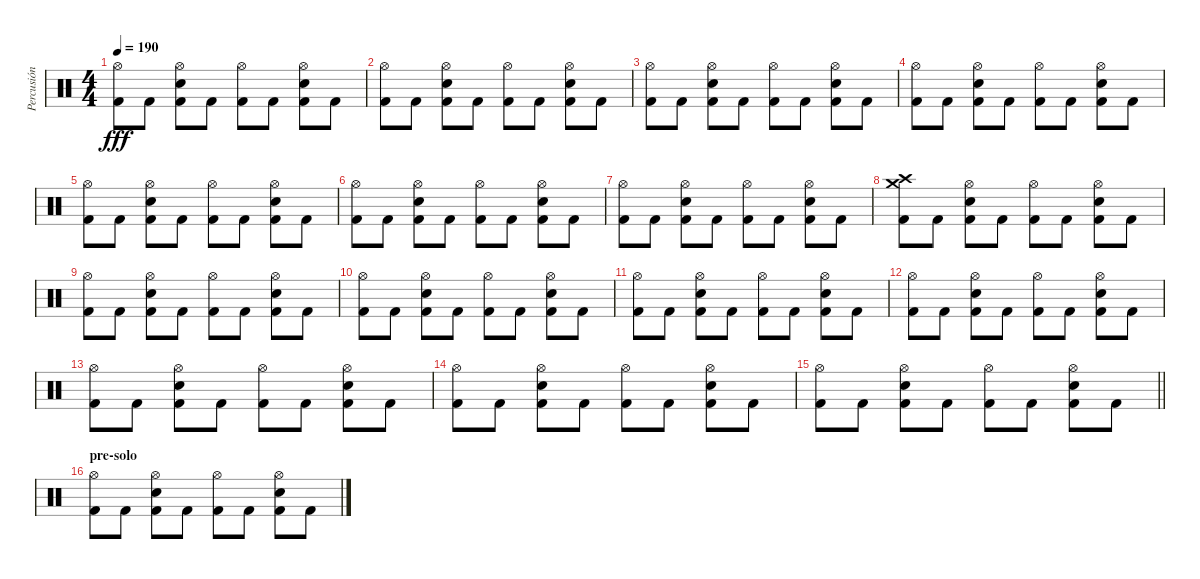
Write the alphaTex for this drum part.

\track ("Percusión" "Percusión") {instrument percussion}
\staff {score}
\articulation defaults
\ts (4 4)
\tempo 190
\clef neutral
\ks c
("Hi-Hat (open)" "Kick (hit) 2").8{dy fff} "Kick (hit) 2".8 ("Hi-Hat (open)" "Electric Snare (hit)" "Kick (hit) 2").8 "Kick (hit) 2".8 ("Hi-Hat (open)" "Kick (hit) 2").8 "Kick (hit) 2".8 ("Hi-Hat (open)" "Electric Snare (hit)" "Kick (hit) 2").8 "Kick (hit) 2".8 |
("Hi-Hat (open)" "Kick (hit) 2").8 "Kick (hit) 2".8 ("Hi-Hat (open)" "Electric Snare (hit)" "Kick (hit) 2").8 "Kick (hit) 2".8 ("Hi-Hat (open)" "Kick (hit) 2").8 "Kick (hit) 2".8 ("Hi-Hat (open)" "Electric Snare (hit)" "Kick (hit) 2").8 "Kick (hit) 2".8 |
("Hi-Hat (open)" "Kick (hit) 2").8 "Kick (hit) 2".8 ("Hi-Hat (open)" "Electric Snare (hit)" "Kick (hit) 2").8 "Kick (hit) 2".8 ("Hi-Hat (open)" "Kick (hit) 2").8 "Kick (hit) 2".8 ("Hi-Hat (open)" "Electric Snare (hit)" "Kick (hit) 2").8 "Kick (hit) 2".8 |
("Hi-Hat (open)" "Kick (hit) 2").8 "Kick (hit) 2".8 ("Hi-Hat (open)" "Electric Snare (hit)" "Kick (hit) 2").8 "Kick (hit) 2".8 ("Hi-Hat (open)" "Kick (hit) 2").8 "Kick (hit) 2".8 ("Hi-Hat (open)" "Electric Snare (hit)" "Kick (hit) 2").8 "Kick (hit) 2".8 |
("Hi-Hat (open)" "Kick (hit) 2").8 "Kick (hit) 2".8 ("Hi-Hat (open)" "Electric Snare (hit)" "Kick (hit) 2").8 "Kick (hit) 2".8 ("Hi-Hat (open)" "Kick (hit) 2").8 "Kick (hit) 2".8 ("Hi-Hat (open)" "Electric Snare (hit)" "Kick (hit) 2").8 "Kick (hit) 2".8 |
("Hi-Hat (open)" "Kick (hit) 2").8 "Kick (hit) 2".8 ("Hi-Hat (open)" "Electric Snare (hit)" "Kick (hit) 2").8 "Kick (hit) 2".8 ("Hi-Hat (open)" "Kick (hit) 2").8 "Kick (hit) 2".8 ("Hi-Hat (open)" "Electric Snare (hit)" "Kick (hit) 2").8 "Kick (hit) 2".8 |
("Hi-Hat (open)" "Kick (hit) 2").8 "Kick (hit) 2".8 ("Hi-Hat (open)" "Electric Snare (hit)" "Kick (hit) 2").8 "Kick (hit) 2".8 ("Hi-Hat (open)" "Kick (hit) 2").8 "Kick (hit) 2".8 ("Hi-Hat (open)" "Electric Snare (hit)" "Kick (hit) 2").8 "Kick (hit) 2".8 |
("Crash high (hit)" "Crash medium (hit)" "Kick (hit) 2").8 "Kick (hit) 2".8 ("Hi-Hat (open)" "Electric Snare (hit)" "Kick (hit) 2").8 "Kick (hit) 2".8 ("Hi-Hat (open)" "Kick (hit) 2").8 "Kick (hit) 2".8 ("Hi-Hat (open)" "Electric Snare (hit)" "Kick (hit) 2").8 "Kick (hit) 2".8 |
("Hi-Hat (open)" "Kick (hit) 2").8 "Kick (hit) 2".8 ("Hi-Hat (open)" "Electric Snare (hit)" "Kick (hit) 2").8 "Kick (hit) 2".8 ("Hi-Hat (open)" "Kick (hit) 2").8 "Kick (hit) 2".8 ("Hi-Hat (open)" "Electric Snare (hit)" "Kick (hit) 2").8 "Kick (hit) 2".8 |
("Hi-Hat (open)" "Kick (hit) 2").8 "Kick (hit) 2".8 ("Hi-Hat (open)" "Electric Snare (hit)" "Kick (hit) 2").8 "Kick (hit) 2".8 ("Hi-Hat (open)" "Kick (hit) 2").8 "Kick (hit) 2".8 ("Hi-Hat (open)" "Electric Snare (hit)" "Kick (hit) 2").8 "Kick (hit) 2".8 |
("Hi-Hat (open)" "Kick (hit) 2").8 "Kick (hit) 2".8 ("Hi-Hat (open)" "Electric Snare (hit)" "Kick (hit) 2").8 "Kick (hit) 2".8 ("Hi-Hat (open)" "Kick (hit) 2").8 "Kick (hit) 2".8 ("Hi-Hat (open)" "Electric Snare (hit)" "Kick (hit) 2").8 "Kick (hit) 2".8 |
("Hi-Hat (open)" "Kick (hit) 2").8 "Kick (hit) 2".8 ("Hi-Hat (open)" "Electric Snare (hit)" "Kick (hit) 2").8 "Kick (hit) 2".8 ("Hi-Hat (open)" "Kick (hit) 2").8 "Kick (hit) 2".8 ("Hi-Hat (open)" "Electric Snare (hit)" "Kick (hit) 2").8 "Kick (hit) 2".8 |
("Hi-Hat (open)" "Kick (hit) 2").8 "Kick (hit) 2".8 ("Hi-Hat (open)" "Electric Snare (hit)" "Kick (hit) 2").8 "Kick (hit) 2".8 ("Hi-Hat (open)" "Kick (hit) 2").8 "Kick (hit) 2".8 ("Hi-Hat (open)" "Electric Snare (hit)" "Kick (hit) 2").8 "Kick (hit) 2".8 |
("Hi-Hat (open)" "Kick (hit) 2").8 "Kick (hit) 2".8 ("Hi-Hat (open)" "Electric Snare (hit)" "Kick (hit) 2").8 "Kick (hit) 2".8 ("Hi-Hat (open)" "Kick (hit) 2").8 "Kick (hit) 2".8 ("Hi-Hat (open)" "Electric Snare (hit)" "Kick (hit) 2").8 "Kick (hit) 2".8 |
\barLineRight lightlight
("Hi-Hat (open)" "Kick (hit) 2").8 "Kick (hit) 2".8 ("Hi-Hat (open)" "Electric Snare (hit)" "Kick (hit) 2").8 "Kick (hit) 2".8 ("Hi-Hat (open)" "Kick (hit) 2").8 "Kick (hit) 2".8 ("Hi-Hat (open)" "Electric Snare (hit)" "Kick (hit) 2").8 "Kick (hit) 2".8 |
\section ("" "pre-solo")
("Hi-Hat (open)" "Kick (hit) 2").8 "Kick (hit) 2".8 ("Hi-Hat (open)" "Electric Snare (hit)" "Kick (hit) 2").8 "Kick (hit) 2".8 ("Hi-Hat (open)" "Kick (hit) 2").8 "Kick (hit) 2".8 ("Hi-Hat (open)" "Electric Snare (hit)" "Kick (hit) 2").8 "Kick (hit) 2".8
